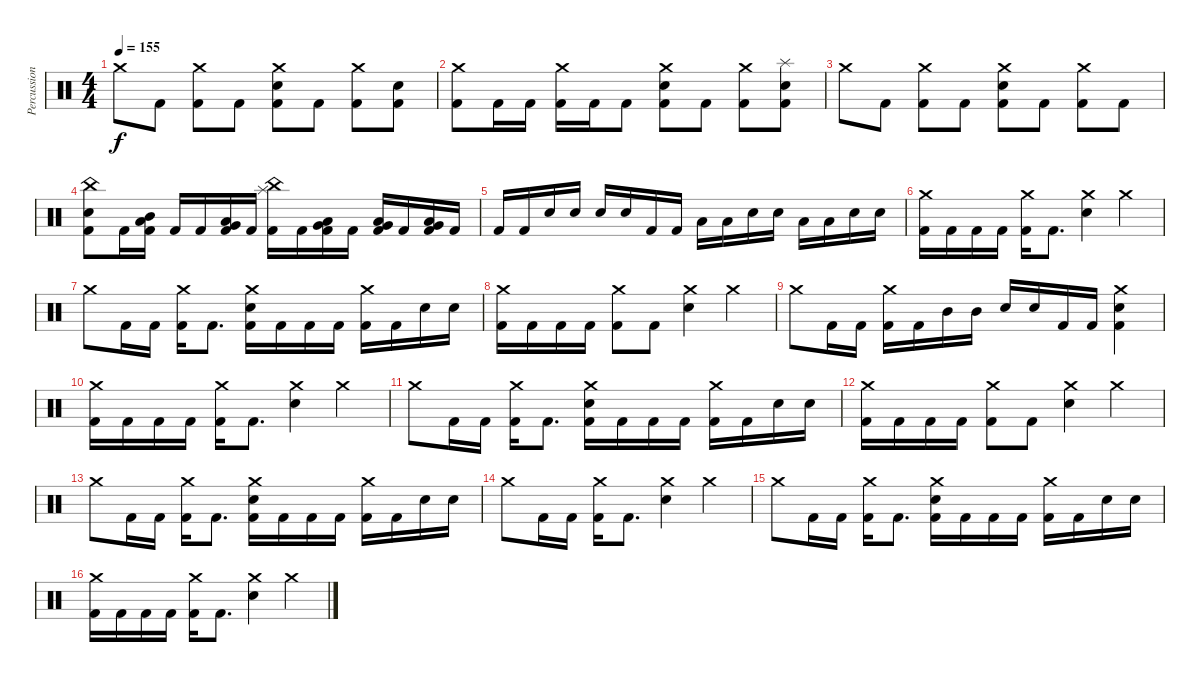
\track ("Percussion" "Percussion") {instrument percussion}
\staff {score}
\articulation defaults
\ts (4 4)
\tempo 155
\clef neutral
\ks c "Crash medium (hit)".8{dy f} "Kick (hit) 2".8
("Crash medium (hit)" "Kick (hit) 2").8 "Kick (hit) 2".8 ("Electric Snare (hit)" "Crash medium (hit)" "Kick (hit) 2").8 "Kick (hit) 2".8 ("Crash medium (hit)" "Kick (hit) 2").8 ("Electric Snare (hit)" "Kick (hit) 2").8 |
("Crash medium (hit)" "Kick (hit) 2").8 "Kick (hit) 2".16 "Kick (hit) 2".16 ("Crash medium (hit)" "Kick (hit) 2").16 "Kick (hit) 2".16 "Kick (hit) 2".8 ("Electric Snare (hit)" "Crash medium (hit)" "Kick (hit) 2").8 "Kick (hit) 2".8 ("Crash medium (hit)" "Kick (hit) 2").8 ("Electric Snare (hit)" "Splash (hit)" "Kick (hit) 2").8 |
"Crash medium (hit)".8 "Kick (hit) 2".8 ("Crash medium (hit)" "Kick (hit) 2").8 "Kick (hit) 2".8 ("Electric Snare (hit)" "Crash medium (hit)" "Kick (hit) 2").8 "Kick (hit) 2".8 ("Crash medium (hit)" "Kick (hit) 2").8 "Kick (hit) 2".8 |
("Electric Snare (hit)" "China (hit)" "Kick (hit) 2").8 "Kick (hit) 2".16 ("Mid Tom (hit)" "Low Tom (hit)" "Kick (hit) 2").16 "Kick (hit) 2".16 "Kick (hit) 2".16 ("Low Tom (hit)" "Very Low Tom (hit)" "Kick (hit) 2").16 "Kick (hit) 2".16 ("Splash (hit)" "China (hit)" "Kick (hit) 2").16 "Kick (hit) 2".16 ("Low Tom (hit)" "Very Low Tom (hit)" "Kick (hit) 2").16 "Kick (hit) 2".16 ("Very Low Tom (hit)" "Low Floor Tom (hit)" "Kick (hit) 2").16 "Kick (hit) 2".16 ("Very Low Tom (hit)" "Low Floor Tom (hit)" "Kick (hit) 2").16 "Kick (hit) 2".16 |
"Kick (hit) 2".16 "Kick (hit) 2".16 "Electric Snare (hit)".16 "Electric Snare (hit)".16 "Electric Snare (hit)".16 "Electric Snare (hit)".16 "Kick (hit) 2".16 "Kick (hit) 2".16 "Low Tom (hit)".16 "Low Tom (hit)".16 "Electric Snare (hit)".16 "Electric Snare (hit)".16 "Low Tom (hit)".16 "Low Tom (hit)".16 "Electric Snare (hit)".16 "Electric Snare (hit)".16 |
("Crash medium (hit)" "Kick (hit) 2").16 "Kick (hit) 2".16 "Kick (hit) 2".16 "Kick (hit) 2".16 ("Crash medium (hit)" "Kick (hit) 2").16 "Kick (hit) 2".8{d} ("Electric Snare (hit)" "Crash medium (hit)").4 "Crash medium (hit)".4 |
"Crash medium (hit)".8 "Kick (hit) 2".16 "Kick (hit) 2".16 ("Crash medium (hit)" "Kick (hit) 2").16 "Kick (hit) 2".8{d} ("Electric Snare (hit)" "Crash medium (hit)" "Kick (hit) 2").16 "Kick (hit) 2".16 "Kick (hit) 2".16 "Kick (hit) 2".16 ("Crash medium (hit)" "Kick (hit) 2").16 "Kick (hit) 2".16 "Electric Snare (hit)".16 "Electric Snare (hit)".16 |
("Crash medium (hit)" "Kick (hit) 2").16 "Kick (hit) 2".16 "Kick (hit) 2".16 "Kick (hit) 2".16 ("Crash medium (hit)" "Kick (hit) 2").8 "Kick (hit) 2".8 ("Electric Snare (hit)" "Crash medium (hit)").4 "Crash medium (hit)".4 |
"Crash medium (hit)".8 "Kick (hit) 2".16 "Kick (hit) 2".16 ("Crash medium (hit)" "Kick (hit) 2").16 "Kick (hit) 2".16 "Mid Tom (hit)".16 "Mid Tom (hit)".16 "Electric Snare (hit)".16 "Electric Snare (hit)".16 "Kick (hit) 2".16 "Kick (hit) 2".16 ("Electric Snare (hit)" "Crash medium (hit)" "Kick (hit) 2").4 |
("Crash medium (hit)" "Kick (hit) 2").16 "Kick (hit) 2".16 "Kick (hit) 2".16 "Kick (hit) 2".16 ("Crash medium (hit)" "Kick (hit) 2").16 "Kick (hit) 2".8{d} ("Electric Snare (hit)" "Crash medium (hit)").4 "Crash medium (hit)".4 |
"Crash medium (hit)".8 "Kick (hit) 2".16 "Kick (hit) 2".16 ("Crash medium (hit)" "Kick (hit) 2").16 "Kick (hit) 2".8{d} ("Electric Snare (hit)" "Crash medium (hit)" "Kick (hit) 2").16 "Kick (hit) 2".16 "Kick (hit) 2".16 "Kick (hit) 2".16 ("Crash medium (hit)" "Kick (hit) 2").16 "Kick (hit) 2".16 "Electric Snare (hit)".16 "Electric Snare (hit)".16 |
("Crash medium (hit)" "Kick (hit) 2").16 "Kick (hit) 2".16 "Kick (hit) 2".16 "Kick (hit) 2".16 ("Crash medium (hit)" "Kick (hit) 2").8 "Kick (hit) 2".8 ("Electric Snare (hit)" "Crash medium (hit)").4 "Crash medium (hit)".4 |
"Crash medium (hit)".8 "Kick (hit) 2".16 "Kick (hit) 2".16 ("Crash medium (hit)" "Kick (hit) 2").16 "Kick (hit) 2".8{d} ("Electric Snare (hit)" "Crash medium (hit)" "Kick (hit) 2").16 "Kick (hit) 2".16 "Kick (hit) 2".16 "Kick (hit) 2".16 ("Crash medium (hit)" "Kick (hit) 2").16 "Kick (hit) 2".16 "Electric Snare (hit)".16 "Electric Snare (hit)".16 |
"Crash medium (hit)".8 "Kick (hit) 2".16 "Kick (hit) 2".16 ("Crash medium (hit)" "Kick (hit) 2").16 "Kick (hit) 2".8{d} ("Electric Snare (hit)" "Crash medium (hit)").4 "Crash medium (hit)".4 |
"Crash medium (hit)".8 "Kick (hit) 2".16 "Kick (hit) 2".16 ("Crash medium (hit)" "Kick (hit) 2").16 "Kick (hit) 2".8{d} ("Electric Snare (hit)" "Crash medium (hit)" "Kick (hit) 2").16 "Kick (hit) 2".16 "Kick (hit) 2".16 "Kick (hit) 2".16 ("Crash medium (hit)" "Kick (hit) 2").16 "Kick (hit) 2".16 "Electric Snare (hit)".16 "Electric Snare (hit)".16 |
("Crash medium (hit)" "Kick (hit) 2").16 "Kick (hit) 2".16 "Kick (hit) 2".16 "Kick (hit) 2".16 ("Crash medium (hit)" "Kick (hit) 2").16 "Kick (hit) 2".8{d} ("Electric Snare (hit)" "Crash medium (hit)").4 "Crash medium (hit)".4
